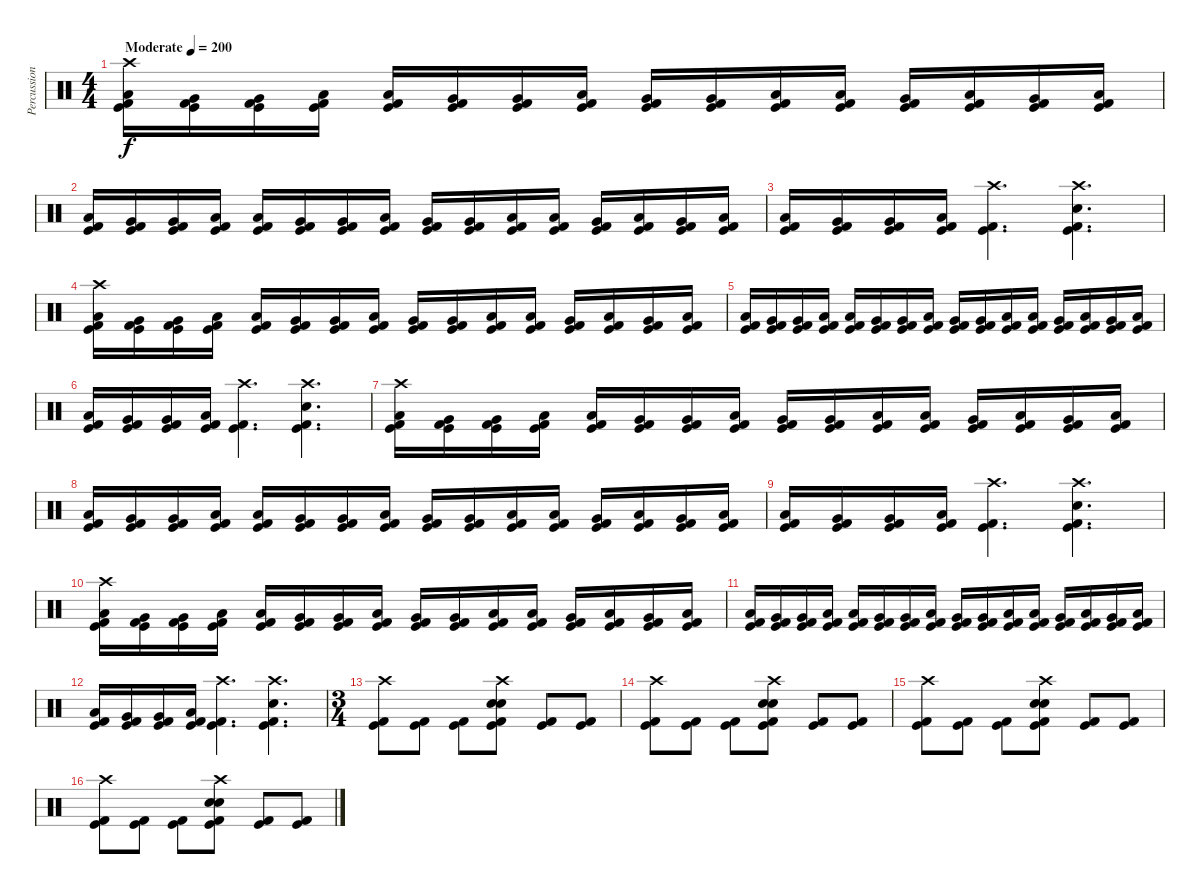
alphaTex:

\track ("Percussion" "Percussion") {instrument percussion}
\staff {score}
\articulation defaults
\ts (4 4)
\tempo (200 "Moderate")
\clef neutral
\ks c
("Crash high (hit)" "Low Tom (hit)" "Kick (hit) 2" "Kick (hit)").16{dy f} ("Very Low Tom (hit)" "Kick (hit) 2" "Kick (hit)").16 ("Very Low Tom (hit)" "Kick (hit) 2" "Kick (hit)").16 ("Low Tom (hit)" "Kick (hit) 2" "Kick (hit)").16 ("Low Floor Tom (hit)" "Kick (hit) 2" "Kick (hit)").16 ("Very Low Tom (hit)" "Kick (hit) 2" "Kick (hit)").16 ("Very Low Tom (hit)" "Kick (hit) 2" "Kick (hit)").16 ("Low Tom (hit)" "Kick (hit) 2" "Kick (hit)").16 ("Very Low Tom (hit)" "Kick (hit) 2" "Kick (hit)").16 ("Very Low Tom (hit)" "Kick (hit) 2" "Kick (hit)").16 ("Low Tom (hit)" "Kick (hit) 2" "Kick (hit)").16 ("Low Floor Tom (hit)" "Kick (hit) 2" "Kick (hit)").16 ("Very Low Tom (hit)" "Kick (hit) 2" "Kick (hit)").16 ("Low Floor Tom (hit)" "Kick (hit) 2" "Kick (hit)").16 ("Very Low Tom (hit)" "Kick (hit) 2" "Kick (hit)").16 ("Low Tom (hit)" "Kick (hit) 2" "Kick (hit)").16 |
("Low Tom (hit)" "Kick (hit) 2" "Kick (hit)").16 ("Very Low Tom (hit)" "Kick (hit) 2" "Kick (hit)").16 ("Very Low Tom (hit)" "Kick (hit) 2" "Kick (hit)").16 ("Low Tom (hit)" "Kick (hit) 2" "Kick (hit)").16 ("Low Floor Tom (hit)" "Kick (hit) 2" "Kick (hit)").16 ("Very Low Tom (hit)" "Kick (hit) 2" "Kick (hit)").16 ("Very Low Tom (hit)" "Kick (hit) 2" "Kick (hit)").16 ("Low Tom (hit)" "Kick (hit) 2" "Kick (hit)").16 ("Very Low Tom (hit)" "Kick (hit) 2" "Kick (hit)").16 ("Very Low Tom (hit)" "Kick (hit) 2" "Kick (hit)").16 ("Low Tom (hit)" "Kick (hit) 2" "Kick (hit)").16 ("Low Floor Tom (hit)" "Kick (hit) 2" "Kick (hit)").16 ("Very Low Tom (hit)" "Kick (hit) 2" "Kick (hit)").16 ("Low Floor Tom (hit)" "Kick (hit) 2" "Kick (hit)").16 ("Very Low Tom (hit)" "Kick (hit) 2" "Kick (hit)").16 ("Low Tom (hit)" "Kick (hit) 2" "Kick (hit)").16 |
("Low Tom (hit)" "Kick (hit) 2" "Kick (hit)").16 ("Very Low Tom (hit)" "Kick (hit) 2" "Kick (hit)").16 ("Very Low Tom (hit)" "Kick (hit) 2" "Kick (hit)").16 ("Low Tom (hit)" "Kick (hit) 2" "Kick (hit)").16 ("Crash high (hit)" "Kick (hit) 2" "Kick (hit)").4{d} ("Crash high (hit)" "Electric Snare (hit)" "Kick (hit) 2" "Kick (hit)").4{d} |
("Crash high (hit)" "Low Tom (hit)" "Kick (hit) 2" "Kick (hit)").16 ("Very Low Tom (hit)" "Kick (hit) 2" "Kick (hit)").16 ("Very Low Tom (hit)" "Kick (hit) 2" "Kick (hit)").16 ("Low Tom (hit)" "Kick (hit) 2" "Kick (hit)").16 ("Low Floor Tom (hit)" "Kick (hit) 2" "Kick (hit)").16 ("Very Low Tom (hit)" "Kick (hit) 2" "Kick (hit)").16 ("Very Low Tom (hit)" "Kick (hit) 2" "Kick (hit)").16 ("Low Tom (hit)" "Kick (hit) 2" "Kick (hit)").16 ("Very Low Tom (hit)" "Kick (hit) 2" "Kick (hit)").16 ("Very Low Tom (hit)" "Kick (hit) 2" "Kick (hit)").16 ("Low Tom (hit)" "Kick (hit) 2" "Kick (hit)").16 ("Low Floor Tom (hit)" "Kick (hit) 2" "Kick (hit)").16 ("Very Low Tom (hit)" "Kick (hit) 2" "Kick (hit)").16 ("Low Floor Tom (hit)" "Kick (hit) 2" "Kick (hit)").16 ("Very Low Tom (hit)" "Kick (hit) 2" "Kick (hit)").16 ("Low Tom (hit)" "Kick (hit) 2" "Kick (hit)").16 |
("Low Tom (hit)" "Kick (hit) 2" "Kick (hit)").16 ("Very Low Tom (hit)" "Kick (hit) 2" "Kick (hit)").16 ("Very Low Tom (hit)" "Kick (hit) 2" "Kick (hit)").16 ("Low Tom (hit)" "Kick (hit) 2" "Kick (hit)").16 ("Low Floor Tom (hit)" "Kick (hit) 2" "Kick (hit)").16 ("Very Low Tom (hit)" "Kick (hit) 2" "Kick (hit)").16 ("Very Low Tom (hit)" "Kick (hit) 2" "Kick (hit)").16 ("Low Tom (hit)" "Kick (hit) 2" "Kick (hit)").16 ("Very Low Tom (hit)" "Kick (hit) 2" "Kick (hit)").16 ("Very Low Tom (hit)" "Kick (hit) 2" "Kick (hit)").16 ("Low Tom (hit)" "Kick (hit) 2" "Kick (hit)").16 ("Low Floor Tom (hit)" "Kick (hit) 2" "Kick (hit)").16 ("Very Low Tom (hit)" "Kick (hit) 2" "Kick (hit)").16 ("Low Floor Tom (hit)" "Kick (hit) 2" "Kick (hit)").16 ("Very Low Tom (hit)" "Kick (hit) 2" "Kick (hit)").16 ("Low Tom (hit)" "Kick (hit) 2" "Kick (hit)").16 |
("Low Tom (hit)" "Kick (hit) 2" "Kick (hit)").16 ("Very Low Tom (hit)" "Kick (hit) 2" "Kick (hit)").16 ("Very Low Tom (hit)" "Kick (hit) 2" "Kick (hit)").16 ("Low Tom (hit)" "Kick (hit) 2" "Kick (hit)").16 ("Crash high (hit)" "Kick (hit) 2" "Kick (hit)").4{d} ("Crash high (hit)" "Electric Snare (hit)" "Kick (hit) 2" "Kick (hit)").4{d} |
("Crash high (hit)" "Low Tom (hit)" "Kick (hit) 2" "Kick (hit)").16 ("Very Low Tom (hit)" "Kick (hit) 2" "Kick (hit)").16 ("Very Low Tom (hit)" "Kick (hit) 2" "Kick (hit)").16 ("Low Tom (hit)" "Kick (hit) 2" "Kick (hit)").16 ("Low Floor Tom (hit)" "Kick (hit) 2" "Kick (hit)").16 ("Very Low Tom (hit)" "Kick (hit) 2" "Kick (hit)").16 ("Very Low Tom (hit)" "Kick (hit) 2" "Kick (hit)").16 ("Low Tom (hit)" "Kick (hit) 2" "Kick (hit)").16 ("Very Low Tom (hit)" "Kick (hit) 2" "Kick (hit)").16 ("Very Low Tom (hit)" "Kick (hit) 2" "Kick (hit)").16 ("Low Tom (hit)" "Kick (hit) 2" "Kick (hit)").16 ("Low Floor Tom (hit)" "Kick (hit) 2" "Kick (hit)").16 ("Very Low Tom (hit)" "Kick (hit) 2" "Kick (hit)").16 ("Low Floor Tom (hit)" "Kick (hit) 2" "Kick (hit)").16 ("Very Low Tom (hit)" "Kick (hit) 2" "Kick (hit)").16 ("Low Tom (hit)" "Kick (hit) 2" "Kick (hit)").16 |
("Low Tom (hit)" "Kick (hit) 2" "Kick (hit)").16 ("Very Low Tom (hit)" "Kick (hit) 2" "Kick (hit)").16 ("Very Low Tom (hit)" "Kick (hit) 2" "Kick (hit)").16 ("Low Tom (hit)" "Kick (hit) 2" "Kick (hit)").16 ("Low Floor Tom (hit)" "Kick (hit) 2" "Kick (hit)").16 ("Very Low Tom (hit)" "Kick (hit) 2" "Kick (hit)").16 ("Very Low Tom (hit)" "Kick (hit) 2" "Kick (hit)").16 ("Low Tom (hit)" "Kick (hit) 2" "Kick (hit)").16 ("Very Low Tom (hit)" "Kick (hit) 2" "Kick (hit)").16 ("Very Low Tom (hit)" "Kick (hit) 2" "Kick (hit)").16 ("Low Tom (hit)" "Kick (hit) 2" "Kick (hit)").16 ("Low Floor Tom (hit)" "Kick (hit) 2" "Kick (hit)").16 ("Very Low Tom (hit)" "Kick (hit) 2" "Kick (hit)").16 ("Low Floor Tom (hit)" "Kick (hit) 2" "Kick (hit)").16 ("Very Low Tom (hit)" "Kick (hit) 2" "Kick (hit)").16 ("Low Tom (hit)" "Kick (hit) 2" "Kick (hit)").16 |
("Low Tom (hit)" "Kick (hit) 2" "Kick (hit)").16 ("Very Low Tom (hit)" "Kick (hit) 2" "Kick (hit)").16 ("Very Low Tom (hit)" "Kick (hit) 2" "Kick (hit)").16 ("Low Tom (hit)" "Kick (hit) 2" "Kick (hit)").16 ("Crash high (hit)" "Kick (hit) 2" "Kick (hit)").4{d} ("Crash high (hit)" "Electric Snare (hit)" "Kick (hit) 2" "Kick (hit)").4{d} |
("Crash high (hit)" "Low Tom (hit)" "Kick (hit) 2" "Kick (hit)").16 ("Very Low Tom (hit)" "Kick (hit) 2" "Kick (hit)").16 ("Very Low Tom (hit)" "Kick (hit) 2" "Kick (hit)").16 ("Low Tom (hit)" "Kick (hit) 2" "Kick (hit)").16 ("Low Floor Tom (hit)" "Kick (hit) 2" "Kick (hit)").16 ("Very Low Tom (hit)" "Kick (hit) 2" "Kick (hit)").16 ("Very Low Tom (hit)" "Kick (hit) 2" "Kick (hit)").16 ("Low Tom (hit)" "Kick (hit) 2" "Kick (hit)").16 ("Very Low Tom (hit)" "Kick (hit) 2" "Kick (hit)").16 ("Very Low Tom (hit)" "Kick (hit) 2" "Kick (hit)").16 ("Low Tom (hit)" "Kick (hit) 2" "Kick (hit)").16 ("Low Floor Tom (hit)" "Kick (hit) 2" "Kick (hit)").16 ("Very Low Tom (hit)" "Kick (hit) 2" "Kick (hit)").16 ("Low Floor Tom (hit)" "Kick (hit) 2" "Kick (hit)").16 ("Very Low Tom (hit)" "Kick (hit) 2" "Kick (hit)").16 ("Low Tom (hit)" "Kick (hit) 2" "Kick (hit)").16 |
("Low Tom (hit)" "Kick (hit) 2" "Kick (hit)").16 ("Very Low Tom (hit)" "Kick (hit) 2" "Kick (hit)").16 ("Very Low Tom (hit)" "Kick (hit) 2" "Kick (hit)").16 ("Low Tom (hit)" "Kick (hit) 2" "Kick (hit)").16 ("Low Floor Tom (hit)" "Kick (hit) 2" "Kick (hit)").16 ("Very Low Tom (hit)" "Kick (hit) 2" "Kick (hit)").16 ("Very Low Tom (hit)" "Kick (hit) 2" "Kick (hit)").16 ("Low Tom (hit)" "Kick (hit) 2" "Kick (hit)").16 ("Very Low Tom (hit)" "Kick (hit) 2" "Kick (hit)").16 ("Very Low Tom (hit)" "Kick (hit) 2" "Kick (hit)").16 ("Low Tom (hit)" "Kick (hit) 2" "Kick (hit)").16 ("Low Floor Tom (hit)" "Kick (hit) 2" "Kick (hit)").16 ("Very Low Tom (hit)" "Kick (hit) 2" "Kick (hit)").16 ("Low Floor Tom (hit)" "Kick (hit) 2" "Kick (hit)").16 ("Very Low Tom (hit)" "Kick (hit) 2" "Kick (hit)").16 ("Low Tom (hit)" "Kick (hit) 2" "Kick (hit)").16 |
("Low Tom (hit)" "Kick (hit) 2" "Kick (hit)").16 ("Very Low Tom (hit)" "Kick (hit) 2" "Kick (hit)").16 ("Very Low Tom (hit)" "Kick (hit) 2" "Kick (hit)").16 ("Low Tom (hit)" "Kick (hit) 2" "Kick (hit)").16 ("Crash high (hit)" "Kick (hit) 2" "Kick (hit)").4{d} ("Crash high (hit)" "Electric Snare (hit)" "Kick (hit) 2" "Kick (hit)").4{d} |
\ts (3 4)
("Crash high (hit)" "Kick (hit) 2" "Kick (hit)").8 ("Kick (hit) 2" "Kick (hit)").8 ("Kick (hit) 2" "Kick (hit)").8 ("Crash high (hit)" "Electric Snare (hit)" "Electric Snare (hit)" "Kick (hit) 2" "Kick (hit)").8 ("Kick (hit) 2" "Kick (hit)").8 ("Kick (hit) 2" "Kick (hit)").8 |
("Crash high (hit)" "Kick (hit) 2" "Kick (hit)").8 ("Kick (hit) 2" "Kick (hit)").8 ("Kick (hit) 2" "Kick (hit)").8 ("Crash high (hit)" "Electric Snare (hit)" "Electric Snare (hit)" "Kick (hit) 2" "Kick (hit)").8 ("Kick (hit) 2" "Kick (hit)").8 ("Kick (hit) 2" "Kick (hit)").8 |
("Crash high (hit)" "Kick (hit) 2" "Kick (hit)").8 ("Kick (hit) 2" "Kick (hit)").8 ("Kick (hit) 2" "Kick (hit)").8 ("Crash high (hit)" "Electric Snare (hit)" "Electric Snare (hit)" "Kick (hit) 2" "Kick (hit)").8 ("Kick (hit) 2" "Kick (hit)").8 ("Kick (hit) 2" "Kick (hit)").8 |
("Crash high (hit)" "Kick (hit) 2" "Kick (hit)").8 ("Kick (hit) 2" "Kick (hit)").8 ("Kick (hit) 2" "Kick (hit)").8 ("Crash high (hit)" "Electric Snare (hit)" "Electric Snare (hit)" "Kick (hit) 2" "Kick (hit)").8 ("Kick (hit) 2" "Kick (hit)").8 ("Kick (hit) 2" "Kick (hit)").8
